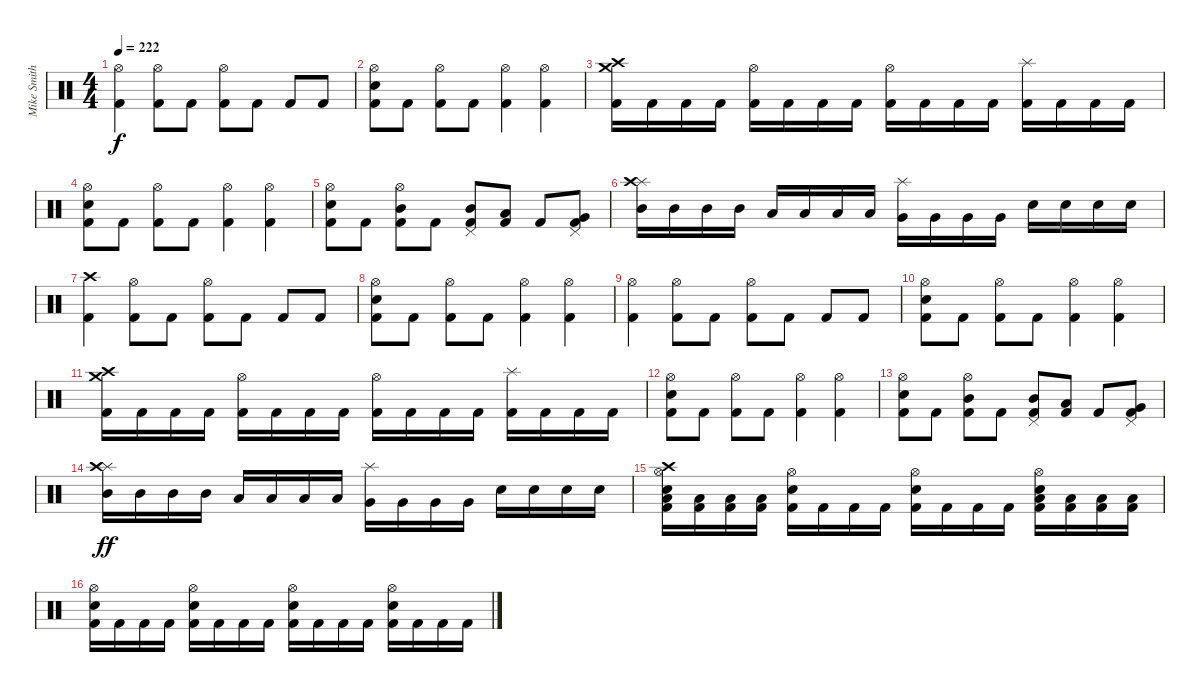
\track ("Mike Smith (Suffocation)" "Mike Smith") {instrument percussion}
\staff {score}
\articulation defaults
\ts (4 4)
\tempo 222
\clef neutral
\ks c
("Hi-Hat (open)" "Kick (hit) 2").4{dy f} ("Hi-Hat (open)" "Kick (hit) 2").8 "Kick (hit) 2".8 ("Hi-Hat (open)" "Kick (hit) 2").8 "Kick (hit) 2".8 "Kick (hit) 2".8 "Kick (hit) 2".8 |
("Hi-Hat (open)" "Snare (hit) 2" "Kick (hit) 2").8 "Kick (hit) 2".8 ("Hi-Hat (open)" "Kick (hit) 2").8 "Kick (hit) 2".8 ("Hi-Hat (open)" "Kick (hit) 2").4 ("Hi-Hat (open)" "Kick (hit) 2").4 |
("Crash medium (hit)" "Crash high (hit)" "Kick (hit) 2").16 "Kick (hit) 2".16 "Kick (hit) 2".16 "Kick (hit) 2".16 ("Hi-Hat (open)" "Kick (hit) 2").16 "Kick (hit) 2".16 "Kick (hit) 2".16 "Kick (hit) 2".16 ("Hi-Hat (open)" "Kick (hit) 2").16 "Kick (hit) 2".16 "Kick (hit) 2".16 "Kick (hit) 2".16 ("Splash (hit)" "Kick (hit) 2").16 "Kick (hit) 2".16 "Kick (hit) 2".16 "Kick (hit) 2".16 |
("Hi-Hat (open)" "Snare (hit) 2" "Kick (hit) 2").8 "Kick (hit) 2".8 ("Hi-Hat (open)" "Kick (hit) 2").8 "Kick (hit) 2".8 ("Hi-Hat (open)" "Kick (hit) 2").4 ("Hi-Hat (open)" "Kick (hit) 2").4 |
("Hi-Hat (open)" "Snare (hit) 2" "Kick (hit) 2").8 "Kick (hit) 2".8 ("Hi-Hat (open)" "Mid Tom (hit)" "Kick (hit) 2").8 "Kick (hit) 2".8 ("Pedal Hi-Hat (hit)" "Mid Tom (hit)" "Kick (hit) 2").8 ("Low Tom (hit)" "Kick (hit) 2").8 "Kick (hit) 2".8 ("Pedal Hi-Hat (hit)" "Very Low Tom (hit)" "Kick (hit) 2").8 |
("Splash (hit)" "Mid Tom (hit)" "Crash high (hit)").16 "Mid Tom (hit)".16 "Mid Tom (hit)".16 "Mid Tom (hit)".16 "Low Tom (hit)".16 "Low Tom (hit)".16 "Low Tom (hit)".16 "Low Tom (hit)".16 ("Splash (hit)" "Very Low Tom (hit)").16 "Very Low Tom (hit)".16 "Very Low Tom (hit)".16 "Very Low Tom (hit)".16 "Snare (hit) 2".16 "Snare (hit) 2".16 "Snare (hit) 2".16 "Snare (hit) 2".16 |
("Crash high (hit)" "Kick (hit) 2").4 ("Hi-Hat (open)" "Kick (hit) 2").8 "Kick (hit) 2".8 ("Hi-Hat (open)" "Kick (hit) 2").8 "Kick (hit) 2".8 "Kick (hit) 2".8 "Kick (hit) 2".8 |
("Hi-Hat (open)" "Snare (hit) 2" "Kick (hit) 2").8 "Kick (hit) 2".8 ("Hi-Hat (open)" "Kick (hit) 2").8 "Kick (hit) 2".8 ("Hi-Hat (open)" "Kick (hit) 2").4 ("Hi-Hat (open)" "Kick (hit) 2").4 |
("Hi-Hat (open)" "Kick (hit) 2").4 ("Hi-Hat (open)" "Kick (hit) 2").8 "Kick (hit) 2".8 ("Hi-Hat (open)" "Kick (hit) 2").8 "Kick (hit) 2".8 "Kick (hit) 2".8 "Kick (hit) 2".8 |
("Hi-Hat (open)" "Snare (hit) 2" "Kick (hit) 2").8 "Kick (hit) 2".8 ("Hi-Hat (open)" "Kick (hit) 2").8 "Kick (hit) 2".8 ("Hi-Hat (open)" "Kick (hit) 2").4 ("Hi-Hat (open)" "Kick (hit) 2").4 |
("Crash medium (hit)" "Crash high (hit)" "Kick (hit) 2").16 "Kick (hit) 2".16 "Kick (hit) 2".16 "Kick (hit) 2".16 ("Hi-Hat (open)" "Kick (hit) 2").16 "Kick (hit) 2".16 "Kick (hit) 2".16 "Kick (hit) 2".16 ("Hi-Hat (open)" "Kick (hit) 2").16 "Kick (hit) 2".16 "Kick (hit) 2".16 "Kick (hit) 2".16 ("Splash (hit)" "Kick (hit) 2").16 "Kick (hit) 2".16 "Kick (hit) 2".16 "Kick (hit) 2".16 |
("Hi-Hat (open)" "Snare (hit) 2" "Kick (hit) 2").8 "Kick (hit) 2".8 ("Hi-Hat (open)" "Kick (hit) 2").8 "Kick (hit) 2".8 ("Hi-Hat (open)" "Kick (hit) 2").4 ("Hi-Hat (open)" "Kick (hit) 2").4 |
("Hi-Hat (open)" "Snare (hit) 2" "Kick (hit) 2").8 "Kick (hit) 2".8 ("Hi-Hat (open)" "Mid Tom (hit)" "Kick (hit) 2").8 "Kick (hit) 2".8 ("Pedal Hi-Hat (hit)" "Mid Tom (hit)" "Kick (hit) 2").8 ("Low Tom (hit)" "Kick (hit) 2").8 "Kick (hit) 2".8 ("Pedal Hi-Hat (hit)" "Very Low Tom (hit)" "Kick (hit) 2").8 |
("Splash (hit)" "Mid Tom (hit)" "Crash high (hit)").16{dy ff volume 16} "Mid Tom (hit)".16 "Mid Tom (hit)".16 "Mid Tom (hit)".16 "Low Tom (hit)".16 "Low Tom (hit)".16 "Low Tom (hit)".16 "Low Tom (hit)".16 ("Splash (hit)" "Very Low Tom (hit)").16 "Very Low Tom (hit)".16 "Very Low Tom (hit)".16 "Very Low Tom (hit)".16 "Snare (hit) 2".16 "Snare (hit) 2".16 "Snare (hit) 2".16 "Snare (hit) 2".16 |
("Crash high (hit)" "Hi-Hat (open)" "Snare (hit) 2" "Low Tom (hit)" "Kick (hit) 2").16{volume 13} ("Low Tom (hit)" "Kick (hit) 2").16 ("Low Tom (hit)" "Kick (hit) 2").16 ("Low Tom (hit)" "Kick (hit) 2").16 ("Hi-Hat (open)" "Snare (hit) 2" "Kick (hit) 2").16 "Kick (hit) 2".16 "Kick (hit) 2".16 "Kick (hit) 2".16 ("Hi-Hat (open)" "Snare (hit) 2" "Kick (hit) 2").16 "Kick (hit) 2".16 "Kick (hit) 2".16 "Kick (hit) 2".16 ("Hi-Hat (open)" "Snare (hit) 2" "Low Tom (hit)" "Kick (hit) 2").16 ("Low Tom (hit)" "Kick (hit) 2").16 ("Low Tom (hit)" "Kick (hit) 2").16 ("Low Tom (hit)" "Kick (hit) 2").16 |
("Hi-Hat (open)" "Snare (hit) 2" "Kick (hit) 2").16 "Kick (hit) 2".16 "Kick (hit) 2".16 "Kick (hit) 2".16 ("Hi-Hat (open)" "Snare (hit) 2" "Kick (hit) 2").16 "Kick (hit) 2".16 "Kick (hit) 2".16 "Kick (hit) 2".16 ("Hi-Hat (open)" "Snare (hit) 2" "Kick (hit) 2").16 "Kick (hit) 2".16 "Kick (hit) 2".16 "Kick (hit) 2".16 ("Hi-Hat (open)" "Snare (hit) 2" "Kick (hit) 2").16 "Kick (hit) 2".16 "Kick (hit) 2".16 "Kick (hit) 2".16
